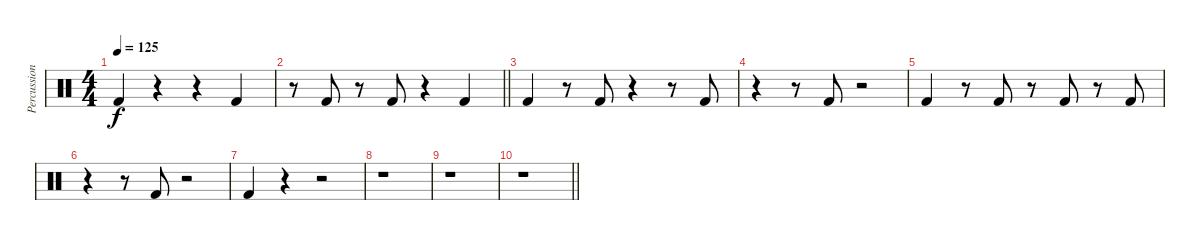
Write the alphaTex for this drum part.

\track ("Percussion (Bass Drum)" "Percussion") {instrument percussion}
\staff {score}
\articulation defaults
\ts (4 4)
\tempo 125
\clef neutral
\ks c "Kick (hit) 2".4{dy f}
r.4 r.4 "Kick (hit) 2".4 |
\barLineRight lightlight
r.8 "Kick (hit) 2".8 r.8 "Kick (hit) 2".8 r.4 "Kick (hit) 2".4 |
"Kick (hit) 2".4 r.8 "Kick (hit) 2".8 r.4 r.8 "Kick (hit) 2".8 |
r.4 r.8 "Kick (hit) 2".8 r.2 |
"Kick (hit) 2".4 r.8 "Kick (hit) 2".8 r.8 "Kick (hit) 2".8 r.8 "Kick (hit) 2".8 |
r.4 r.8 "Kick (hit) 2".8 r.2 |
"Kick (hit) 2".4 r.4 r.2 |
r.1 |
r.1 |
\barLineRight lightlight
r.1
